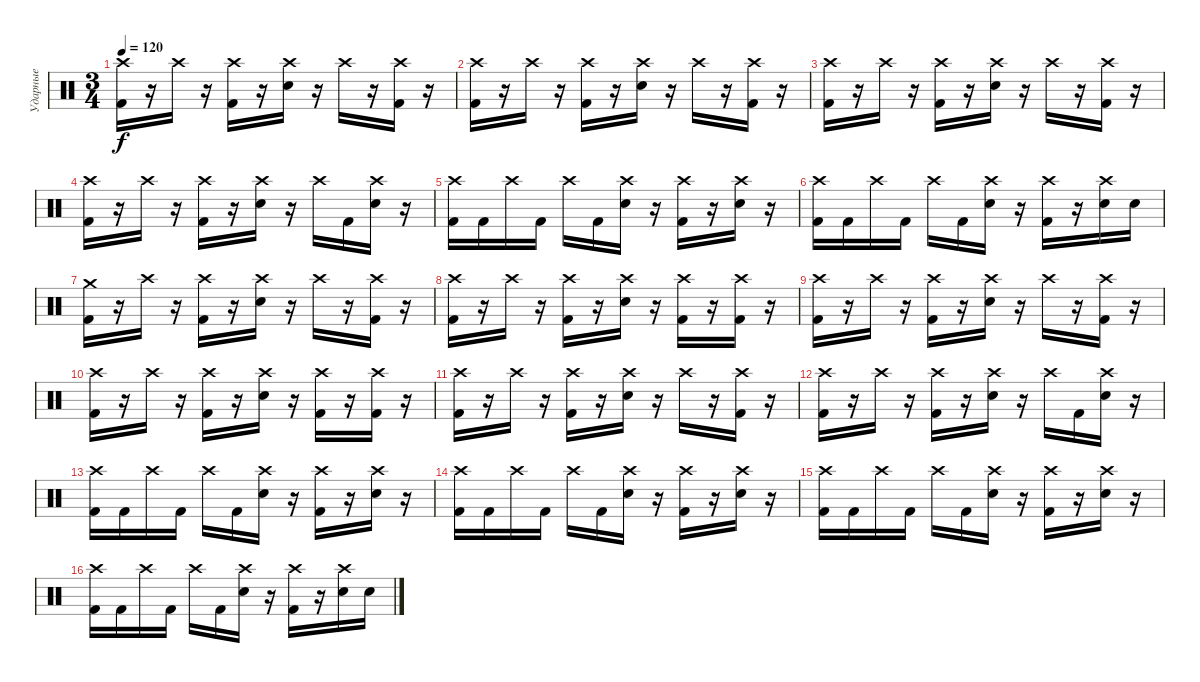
\track ("Ударные" "Ударные") {instrument percussion}
\staff {score}
\articulation defaults
\ts (3 4)
\tempo 120
\clef neutral
\ks c
("Crash high (hit)" "Kick (hit) 2").16{dy f} r.16 "Crash high (hit)".16 r.16 ("Crash high (hit)" "Kick (hit) 2").16 r.16 ("Crash high (hit)" "Electric Snare (hit)").16 r.16 "Crash high (hit)".16 r.16 ("Crash high (hit)" "Kick (hit) 2").16 r.16 |
("Crash high (hit)" "Kick (hit) 2").16 r.16 "Crash high (hit)".16 r.16 ("Crash high (hit)" "Kick (hit) 2").16 r.16 ("Crash high (hit)" "Electric Snare (hit)").16 r.16 "Crash high (hit)".16 r.16 ("Crash high (hit)" "Kick (hit) 2").16 r.16 |
("Crash high (hit)" "Kick (hit) 2").16 r.16 "Crash high (hit)".16 r.16 ("Crash high (hit)" "Kick (hit) 2").16 r.16 ("Crash high (hit)" "Electric Snare (hit)").16 r.16 "Crash high (hit)".16 r.16 ("Crash high (hit)" "Kick (hit) 2").16 r.16 |
("Crash high (hit)" "Kick (hit) 2").16 r.16 "Crash high (hit)".16 r.16 ("Crash high (hit)" "Kick (hit) 2").16 r.16 ("Crash high (hit)" "Electric Snare (hit)").16 r.16 "Crash high (hit)".16 "Kick (hit) 2".16 ("Crash high (hit)" "Electric Snare (hit)").16 r.16 |
("Crash high (hit)" "Kick (hit) 2").16 "Kick (hit) 2".16 "Crash high (hit)".16 "Kick (hit) 2".16 "Crash high (hit)".16 "Kick (hit) 2".16 ("Crash high (hit)" "Electric Snare (hit)").16 r.16 ("Crash high (hit)" "Kick (hit) 2").16 r.16 ("Crash high (hit)" "Electric Snare (hit)").16 r.16 |
("Crash high (hit)" "Kick (hit) 2").16 "Kick (hit) 2".16 "Crash high (hit)".16 "Kick (hit) 2".16 "Crash high (hit)".16 "Kick (hit) 2".16 ("Crash high (hit)" "Electric Snare (hit)").16 r.16 ("Crash high (hit)" "Kick (hit) 2").16 r.16 ("Crash high (hit)" "Electric Snare (hit)").16 "Electric Snare (hit)".16 |
("Crash medium (hit)" "Kick (hit) 2").16 r.16 "Crash high (hit)".16 r.16 ("Crash high (hit)" "Kick (hit) 2").16 r.16 ("Crash high (hit)" "Electric Snare (hit)").16 r.16 "Crash high (hit)".16 r.16 ("Crash high (hit)" "Kick (hit) 2").16 r.16 |
("Crash high (hit)" "Kick (hit) 2").16 r.16 "Crash high (hit)".16 r.16 ("Crash high (hit)" "Kick (hit) 2").16 r.16 ("Crash high (hit)" "Electric Snare (hit)").16 r.16 ("Crash high (hit)" "Kick (hit) 2").16 r.16 ("Crash high (hit)" "Kick (hit) 2").16 r.16 |
("Crash high (hit)" "Kick (hit) 2").16 r.16 "Crash high (hit)".16 r.16 ("Crash high (hit)" "Kick (hit) 2").16 r.16 ("Crash high (hit)" "Electric Snare (hit)").16 r.16 "Crash high (hit)".16 r.16 ("Crash high (hit)" "Kick (hit) 2").16 r.16 |
("Crash high (hit)" "Kick (hit) 2").16 r.16 "Crash high (hit)".16 r.16 ("Crash high (hit)" "Kick (hit) 2").16 r.16 ("Crash high (hit)" "Electric Snare (hit)").16 r.16 ("Crash high (hit)" "Kick (hit) 2").16 r.16 ("Crash high (hit)" "Kick (hit) 2").16 r.16 |
("Crash high (hit)" "Kick (hit) 2").16 r.16 "Crash high (hit)".16 r.16 ("Crash high (hit)" "Kick (hit) 2").16 r.16 ("Crash high (hit)" "Electric Snare (hit)").16 r.16 "Crash high (hit)".16 r.16 ("Crash high (hit)" "Kick (hit) 2").16 r.16 |
("Crash high (hit)" "Kick (hit) 2").16 r.16 "Crash high (hit)".16 r.16 ("Crash high (hit)" "Kick (hit) 2").16 r.16 ("Crash high (hit)" "Electric Snare (hit)").16 r.16 "Crash high (hit)".16 "Kick (hit) 2".16 ("Crash high (hit)" "Electric Snare (hit)").16 r.16 |
("Crash high (hit)" "Kick (hit) 2").16 "Kick (hit) 2".16 "Crash high (hit)".16 "Kick (hit) 2".16 "Crash high (hit)".16 "Kick (hit) 2".16 ("Crash high (hit)" "Electric Snare (hit)").16 r.16 ("Crash high (hit)" "Kick (hit) 2").16 r.16 ("Crash high (hit)" "Electric Snare (hit)").16 r.16 |
("Crash high (hit)" "Kick (hit) 2").16 "Kick (hit) 2".16 "Crash high (hit)".16 "Kick (hit) 2".16 "Crash high (hit)".16 "Kick (hit) 2".16 ("Crash high (hit)" "Electric Snare (hit)").16 r.16 ("Crash high (hit)" "Kick (hit) 2").16 r.16 ("Crash high (hit)" "Electric Snare (hit)").16 r.16 |
("Crash high (hit)" "Kick (hit) 2").16 "Kick (hit) 2".16 "Crash high (hit)".16 "Kick (hit) 2".16 "Crash high (hit)".16 "Kick (hit) 2".16 ("Crash high (hit)" "Electric Snare (hit)").16 r.16 ("Crash high (hit)" "Kick (hit) 2").16 r.16 ("Crash high (hit)" "Electric Snare (hit)").16 r.16 |
("Crash high (hit)" "Kick (hit) 2").16 "Kick (hit) 2".16 "Crash high (hit)".16 "Kick (hit) 2".16 "Crash high (hit)".16 "Kick (hit) 2".16 ("Crash high (hit)" "Electric Snare (hit)").16 r.16 ("Crash high (hit)" "Kick (hit) 2").16 r.16 ("Crash high (hit)" "Electric Snare (hit)").16 "Electric Snare (hit)".16
